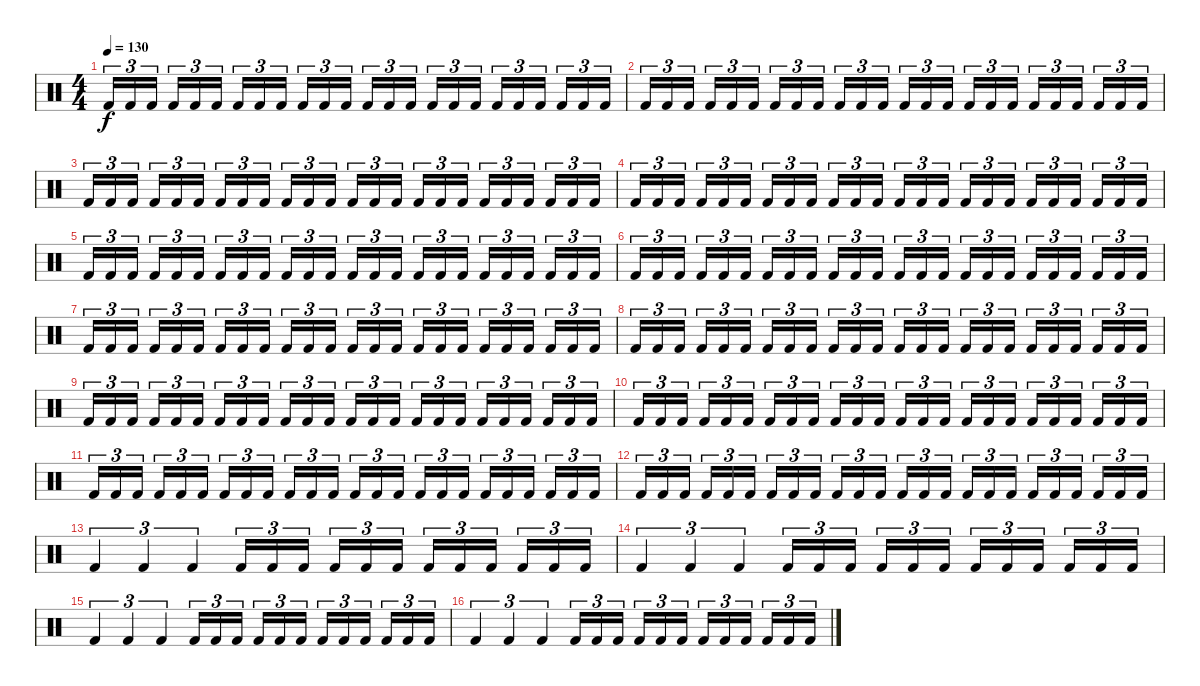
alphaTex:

\track "" {instrument percussion}
\staff {score}
\articulation defaults
\ts (4 4)
\tempo 130
\clef neutral
\ks c "Kick (hit) 2".16{tu (3 2) dy f} "Kick (hit) 2".16{tu (3 2)} "Kick (hit) 2".16{tu (3 2)} "Kick (hit) 2".16{tu (3 2)} "Kick (hit) 2".16{tu (3 2)} "Kick (hit) 2".16{tu (3 2)} "Kick (hit) 2".16{tu (3 2)} "Kick (hit) 2".16{tu (3 2)} "Kick (hit) 2".16{tu (3 2)} "Kick (hit) 2".16{tu (3 2)} "Kick (hit) 2".16{tu (3 2)} "Kick (hit) 2".16{tu (3 2)} "Kick (hit) 2".16{tu (3 2)} "Kick (hit) 2".16{tu (3 2)} "Kick (hit) 2".16{tu (3 2)} "Kick (hit) 2".16{tu (3 2)} "Kick (hit) 2".16{tu (3 2)} "Kick (hit) 2".16{tu (3 2)} "Kick (hit) 2".16{tu (3 2)} "Kick (hit) 2".16{tu (3 2)} "Kick (hit) 2".16{tu (3 2)} "Kick (hit) 2".16{tu (3 2)} "Kick (hit) 2".16{tu (3 2)} "Kick (hit) 2".16{tu (3 2)}
|
"Kick (hit) 2".16{tu (3 2)} "Kick (hit) 2".16{tu (3 2)} "Kick (hit) 2".16{tu (3 2)} "Kick (hit) 2".16{tu (3 2)} "Kick (hit) 2".16{tu (3 2)} "Kick (hit) 2".16{tu (3 2)} "Kick (hit) 2".16{tu (3 2)} "Kick (hit) 2".16{tu (3 2)} "Kick (hit) 2".16{tu (3 2)} "Kick (hit) 2".16{tu (3 2)} "Kick (hit) 2".16{tu (3 2)} "Kick (hit) 2".16{tu (3 2)} "Kick (hit) 2".16{tu (3 2)} "Kick (hit) 2".16{tu (3 2)} "Kick (hit) 2".16{tu (3 2)} "Kick (hit) 2".16{tu (3 2)} "Kick (hit) 2".16{tu (3 2)} "Kick (hit) 2".16{tu (3 2)} "Kick (hit) 2".16{tu (3 2)} "Kick (hit) 2".16{tu (3 2)} "Kick (hit) 2".16{tu (3 2)} "Kick (hit) 2".16{tu (3 2)} "Kick (hit) 2".16{tu (3 2)} "Kick (hit) 2".16{tu (3 2)} |
"Kick (hit) 2".16{tu (3 2)} "Kick (hit) 2".16{tu (3 2)} "Kick (hit) 2".16{tu (3 2)} "Kick (hit) 2".16{tu (3 2)} "Kick (hit) 2".16{tu (3 2)} "Kick (hit) 2".16{tu (3 2)} "Kick (hit) 2".16{tu (3 2)} "Kick (hit) 2".16{tu (3 2)} "Kick (hit) 2".16{tu (3 2)} "Kick (hit) 2".16{tu (3 2)} "Kick (hit) 2".16{tu (3 2)} "Kick (hit) 2".16{tu (3 2)} "Kick (hit) 2".16{tu (3 2)} "Kick (hit) 2".16{tu (3 2)} "Kick (hit) 2".16{tu (3 2)} "Kick (hit) 2".16{tu (3 2)} "Kick (hit) 2".16{tu (3 2)} "Kick (hit) 2".16{tu (3 2)} "Kick (hit) 2".16{tu (3 2)} "Kick (hit) 2".16{tu (3 2)} "Kick (hit) 2".16{tu (3 2)} "Kick (hit) 2".16{tu (3 2)} "Kick (hit) 2".16{tu (3 2)} "Kick (hit) 2".16{tu (3 2)} |
"Kick (hit) 2".16{tu (3 2)} "Kick (hit) 2".16{tu (3 2)} "Kick (hit) 2".16{tu (3 2)} "Kick (hit) 2".16{tu (3 2)} "Kick (hit) 2".16{tu (3 2)} "Kick (hit) 2".16{tu (3 2)} "Kick (hit) 2".16{tu (3 2)} "Kick (hit) 2".16{tu (3 2)} "Kick (hit) 2".16{tu (3 2)} "Kick (hit) 2".16{tu (3 2)} "Kick (hit) 2".16{tu (3 2)} "Kick (hit) 2".16{tu (3 2)} "Kick (hit) 2".16{tu (3 2)} "Kick (hit) 2".16{tu (3 2)} "Kick (hit) 2".16{tu (3 2)} "Kick (hit) 2".16{tu (3 2)} "Kick (hit) 2".16{tu (3 2)} "Kick (hit) 2".16{tu (3 2)} "Kick (hit) 2".16{tu (3 2)} "Kick (hit) 2".16{tu (3 2)} "Kick (hit) 2".16{tu (3 2)} "Kick (hit) 2".16{tu (3 2)} "Kick (hit) 2".16{tu (3 2)} "Kick (hit) 2".16{tu (3 2)} |
"Kick (hit) 2".16{tu (3 2)} "Kick (hit) 2".16{tu (3 2)} "Kick (hit) 2".16{tu (3 2)} "Kick (hit) 2".16{tu (3 2)} "Kick (hit) 2".16{tu (3 2)} "Kick (hit) 2".16{tu (3 2)} "Kick (hit) 2".16{tu (3 2)} "Kick (hit) 2".16{tu (3 2)} "Kick (hit) 2".16{tu (3 2)} "Kick (hit) 2".16{tu (3 2)} "Kick (hit) 2".16{tu (3 2)} "Kick (hit) 2".16{tu (3 2)} "Kick (hit) 2".16{tu (3 2)} "Kick (hit) 2".16{tu (3 2)} "Kick (hit) 2".16{tu (3 2)} "Kick (hit) 2".16{tu (3 2)} "Kick (hit) 2".16{tu (3 2)} "Kick (hit) 2".16{tu (3 2)} "Kick (hit) 2".16{tu (3 2)} "Kick (hit) 2".16{tu (3 2)} "Kick (hit) 2".16{tu (3 2)} "Kick (hit) 2".16{tu (3 2)} "Kick (hit) 2".16{tu (3 2)} "Kick (hit) 2".16{tu (3 2)} |
"Kick (hit) 2".16{tu (3 2)} "Kick (hit) 2".16{tu (3 2)} "Kick (hit) 2".16{tu (3 2)} "Kick (hit) 2".16{tu (3 2)} "Kick (hit) 2".16{tu (3 2)} "Kick (hit) 2".16{tu (3 2)} "Kick (hit) 2".16{tu (3 2)} "Kick (hit) 2".16{tu (3 2)} "Kick (hit) 2".16{tu (3 2)} "Kick (hit) 2".16{tu (3 2)} "Kick (hit) 2".16{tu (3 2)} "Kick (hit) 2".16{tu (3 2)} "Kick (hit) 2".16{tu (3 2)} "Kick (hit) 2".16{tu (3 2)} "Kick (hit) 2".16{tu (3 2)} "Kick (hit) 2".16{tu (3 2)} "Kick (hit) 2".16{tu (3 2)} "Kick (hit) 2".16{tu (3 2)} "Kick (hit) 2".16{tu (3 2)} "Kick (hit) 2".16{tu (3 2)} "Kick (hit) 2".16{tu (3 2)} "Kick (hit) 2".16{tu (3 2)} "Kick (hit) 2".16{tu (3 2)} "Kick (hit) 2".16{tu (3 2)} |
"Kick (hit) 2".16{tu (3 2)} "Kick (hit) 2".16{tu (3 2)} "Kick (hit) 2".16{tu (3 2)} "Kick (hit) 2".16{tu (3 2)} "Kick (hit) 2".16{tu (3 2)} "Kick (hit) 2".16{tu (3 2)} "Kick (hit) 2".16{tu (3 2)} "Kick (hit) 2".16{tu (3 2)} "Kick (hit) 2".16{tu (3 2)} "Kick (hit) 2".16{tu (3 2)} "Kick (hit) 2".16{tu (3 2)} "Kick (hit) 2".16{tu (3 2)} "Kick (hit) 2".16{tu (3 2)} "Kick (hit) 2".16{tu (3 2)} "Kick (hit) 2".16{tu (3 2)} "Kick (hit) 2".16{tu (3 2)} "Kick (hit) 2".16{tu (3 2)} "Kick (hit) 2".16{tu (3 2)} "Kick (hit) 2".16{tu (3 2)} "Kick (hit) 2".16{tu (3 2)} "Kick (hit) 2".16{tu (3 2)} "Kick (hit) 2".16{tu (3 2)} "Kick (hit) 2".16{tu (3 2)} "Kick (hit) 2".16{tu (3 2)} |
"Kick (hit) 2".16{tu (3 2)} "Kick (hit) 2".16{tu (3 2)} "Kick (hit) 2".16{tu (3 2)} "Kick (hit) 2".16{tu (3 2)} "Kick (hit) 2".16{tu (3 2)} "Kick (hit) 2".16{tu (3 2)} "Kick (hit) 2".16{tu (3 2)} "Kick (hit) 2".16{tu (3 2)} "Kick (hit) 2".16{tu (3 2)} "Kick (hit) 2".16{tu (3 2)} "Kick (hit) 2".16{tu (3 2)} "Kick (hit) 2".16{tu (3 2)} "Kick (hit) 2".16{tu (3 2)} "Kick (hit) 2".16{tu (3 2)} "Kick (hit) 2".16{tu (3 2)} "Kick (hit) 2".16{tu (3 2)} "Kick (hit) 2".16{tu (3 2)} "Kick (hit) 2".16{tu (3 2)} "Kick (hit) 2".16{tu (3 2)} "Kick (hit) 2".16{tu (3 2)} "Kick (hit) 2".16{tu (3 2)} "Kick (hit) 2".16{tu (3 2)} "Kick (hit) 2".16{tu (3 2)} "Kick (hit) 2".16{tu (3 2)} |
"Kick (hit) 2".16{tu (3 2)} "Kick (hit) 2".16{tu (3 2)} "Kick (hit) 2".16{tu (3 2)} "Kick (hit) 2".16{tu (3 2)} "Kick (hit) 2".16{tu (3 2)} "Kick (hit) 2".16{tu (3 2)} "Kick (hit) 2".16{tu (3 2)} "Kick (hit) 2".16{tu (3 2)} "Kick (hit) 2".16{tu (3 2)} "Kick (hit) 2".16{tu (3 2)} "Kick (hit) 2".16{tu (3 2)} "Kick (hit) 2".16{tu (3 2)} "Kick (hit) 2".16{tu (3 2)} "Kick (hit) 2".16{tu (3 2)} "Kick (hit) 2".16{tu (3 2)} "Kick (hit) 2".16{tu (3 2)} "Kick (hit) 2".16{tu (3 2)} "Kick (hit) 2".16{tu (3 2)} "Kick (hit) 2".16{tu (3 2)} "Kick (hit) 2".16{tu (3 2)} "Kick (hit) 2".16{tu (3 2)} "Kick (hit) 2".16{tu (3 2)} "Kick (hit) 2".16{tu (3 2)} "Kick (hit) 2".16{tu (3 2)} |
"Kick (hit) 2".16{tu (3 2)} "Kick (hit) 2".16{tu (3 2)} "Kick (hit) 2".16{tu (3 2)} "Kick (hit) 2".16{tu (3 2)} "Kick (hit) 2".16{tu (3 2)} "Kick (hit) 2".16{tu (3 2)} "Kick (hit) 2".16{tu (3 2)} "Kick (hit) 2".16{tu (3 2)} "Kick (hit) 2".16{tu (3 2)} "Kick (hit) 2".16{tu (3 2)} "Kick (hit) 2".16{tu (3 2)} "Kick (hit) 2".16{tu (3 2)} "Kick (hit) 2".16{tu (3 2)} "Kick (hit) 2".16{tu (3 2)} "Kick (hit) 2".16{tu (3 2)} "Kick (hit) 2".16{tu (3 2)} "Kick (hit) 2".16{tu (3 2)} "Kick (hit) 2".16{tu (3 2)} "Kick (hit) 2".16{tu (3 2)} "Kick (hit) 2".16{tu (3 2)} "Kick (hit) 2".16{tu (3 2)} "Kick (hit) 2".16{tu (3 2)} "Kick (hit) 2".16{tu (3 2)} "Kick (hit) 2".16{tu (3 2)} |
"Kick (hit) 2".16{tu (3 2)} "Kick (hit) 2".16{tu (3 2)} "Kick (hit) 2".16{tu (3 2)} "Kick (hit) 2".16{tu (3 2)} "Kick (hit) 2".16{tu (3 2)} "Kick (hit) 2".16{tu (3 2)} "Kick (hit) 2".16{tu (3 2)} "Kick (hit) 2".16{tu (3 2)} "Kick (hit) 2".16{tu (3 2)} "Kick (hit) 2".16{tu (3 2)} "Kick (hit) 2".16{tu (3 2)} "Kick (hit) 2".16{tu (3 2)} "Kick (hit) 2".16{tu (3 2)} "Kick (hit) 2".16{tu (3 2)} "Kick (hit) 2".16{tu (3 2)} "Kick (hit) 2".16{tu (3 2)} "Kick (hit) 2".16{tu (3 2)} "Kick (hit) 2".16{tu (3 2)} "Kick (hit) 2".16{tu (3 2)} "Kick (hit) 2".16{tu (3 2)} "Kick (hit) 2".16{tu (3 2)} "Kick (hit) 2".16{tu (3 2)} "Kick (hit) 2".16{tu (3 2)} "Kick (hit) 2".16{tu (3 2)} |
"Kick (hit) 2".16{tu (3 2)} "Kick (hit) 2".16{tu (3 2)} "Kick (hit) 2".16{tu (3 2)} "Kick (hit) 2".16{tu (3 2)} "Kick (hit) 2".16{tu (3 2)} "Kick (hit) 2".16{tu (3 2)} "Kick (hit) 2".16{tu (3 2)} "Kick (hit) 2".16{tu (3 2)} "Kick (hit) 2".16{tu (3 2)} "Kick (hit) 2".16{tu (3 2)} "Kick (hit) 2".16{tu (3 2)} "Kick (hit) 2".16{tu (3 2)} "Kick (hit) 2".16{tu (3 2)} "Kick (hit) 2".16{tu (3 2)} "Kick (hit) 2".16{tu (3 2)} "Kick (hit) 2".16{tu (3 2)} "Kick (hit) 2".16{tu (3 2)} "Kick (hit) 2".16{tu (3 2)} "Kick (hit) 2".16{tu (3 2)} "Kick (hit) 2".16{tu (3 2)} "Kick (hit) 2".16{tu (3 2)} "Kick (hit) 2".16{tu (3 2)} "Kick (hit) 2".16{tu (3 2)} "Kick (hit) 2".16{tu (3 2)} |
"Kick (hit) 2".4{tu (3 2)} "Kick (hit) 2".4{tu (3 2)} "Kick (hit) 2".4{tu (3 2)} "Kick (hit) 2".16{tu (3 2)} "Kick (hit) 2".16{tu (3 2)} "Kick (hit) 2".16{tu (3 2)} "Kick (hit) 2".16{tu (3 2)} "Kick (hit) 2".16{tu (3 2)} "Kick (hit) 2".16{tu (3 2)} "Kick (hit) 2".16{tu (3 2)} "Kick (hit) 2".16{tu (3 2)} "Kick (hit) 2".16{tu (3 2)} "Kick (hit) 2".16{tu (3 2)} "Kick (hit) 2".16{tu (3 2)} "Kick (hit) 2".16{tu (3 2)} |
"Kick (hit) 2".4{tu (3 2)} "Kick (hit) 2".4{tu (3 2)} "Kick (hit) 2".4{tu (3 2)} "Kick (hit) 2".16{tu (3 2)} "Kick (hit) 2".16{tu (3 2)} "Kick (hit) 2".16{tu (3 2)} "Kick (hit) 2".16{tu (3 2)} "Kick (hit) 2".16{tu (3 2)} "Kick (hit) 2".16{tu (3 2)} "Kick (hit) 2".16{tu (3 2)} "Kick (hit) 2".16{tu (3 2)} "Kick (hit) 2".16{tu (3 2)} "Kick (hit) 2".16{tu (3 2)} "Kick (hit) 2".16{tu (3 2)} "Kick (hit) 2".16{tu (3 2)} |
"Kick (hit) 2".4{tu (3 2)} "Kick (hit) 2".4{tu (3 2)} "Kick (hit) 2".4{tu (3 2)} "Kick (hit) 2".16{tu (3 2)} "Kick (hit) 2".16{tu (3 2)} "Kick (hit) 2".16{tu (3 2)} "Kick (hit) 2".16{tu (3 2)} "Kick (hit) 2".16{tu (3 2)} "Kick (hit) 2".16{tu (3 2)} "Kick (hit) 2".16{tu (3 2)} "Kick (hit) 2".16{tu (3 2)} "Kick (hit) 2".16{tu (3 2)} "Kick (hit) 2".16{tu (3 2)} "Kick (hit) 2".16{tu (3 2)} "Kick (hit) 2".16{tu (3 2)} |
"Kick (hit) 2".4{tu (3 2)} "Kick (hit) 2".4{tu (3 2)} "Kick (hit) 2".4{tu (3 2)} "Kick (hit) 2".16{tu (3 2)} "Kick (hit) 2".16{tu (3 2)} "Kick (hit) 2".16{tu (3 2)} "Kick (hit) 2".16{tu (3 2)} "Kick (hit) 2".16{tu (3 2)} "Kick (hit) 2".16{tu (3 2)} "Kick (hit) 2".16{tu (3 2)} "Kick (hit) 2".16{tu (3 2)} "Kick (hit) 2".16{tu (3 2)} "Kick (hit) 2".16{tu (3 2)} "Kick (hit) 2".16{tu (3 2)} "Kick (hit) 2".16{tu (3 2)}
